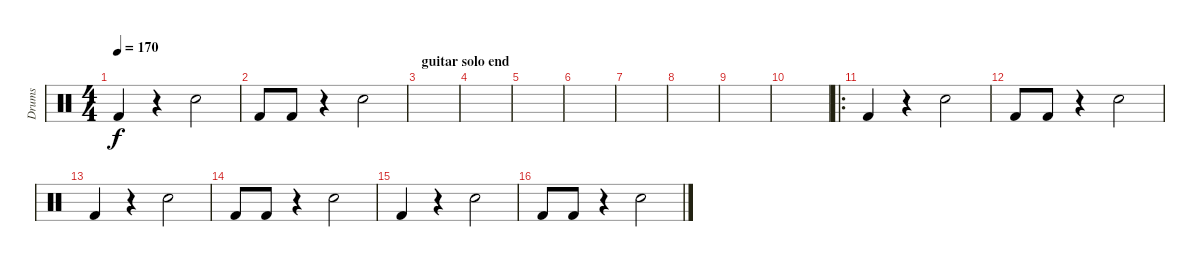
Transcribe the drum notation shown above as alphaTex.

\track ("Drums" "Drums") {instrument percussion}
\staff {score}
\articulation defaults
\ts (4 4)
\tempo 170
\clef neutral
\ks c "Kick (hit) 2".4{dy f}
r.4 "Snare (hit) 2".2 |
"Kick (hit) 2".8 "Kick (hit) 2".8 r.4 "Snare (hit) 2".2 |
\section ("" "guitar solo end")
|
|
|
|
|
|
|
|
\ro "Kick (hit) 2".4
r.4 "Snare (hit) 2".2 |
"Kick (hit) 2".8 "Kick (hit) 2".8 r.4 "Snare (hit) 2".2 |
"Kick (hit) 2".4 r.4 "Snare (hit) 2".2 |
"Kick (hit) 2".8 "Kick (hit) 2".8 r.4 "Snare (hit) 2".2 |
"Kick (hit) 2".4 r.4 "Snare (hit) 2".2 |
"Kick (hit) 2".8 "Kick (hit) 2".8 r.4 "Snare (hit) 2".2
